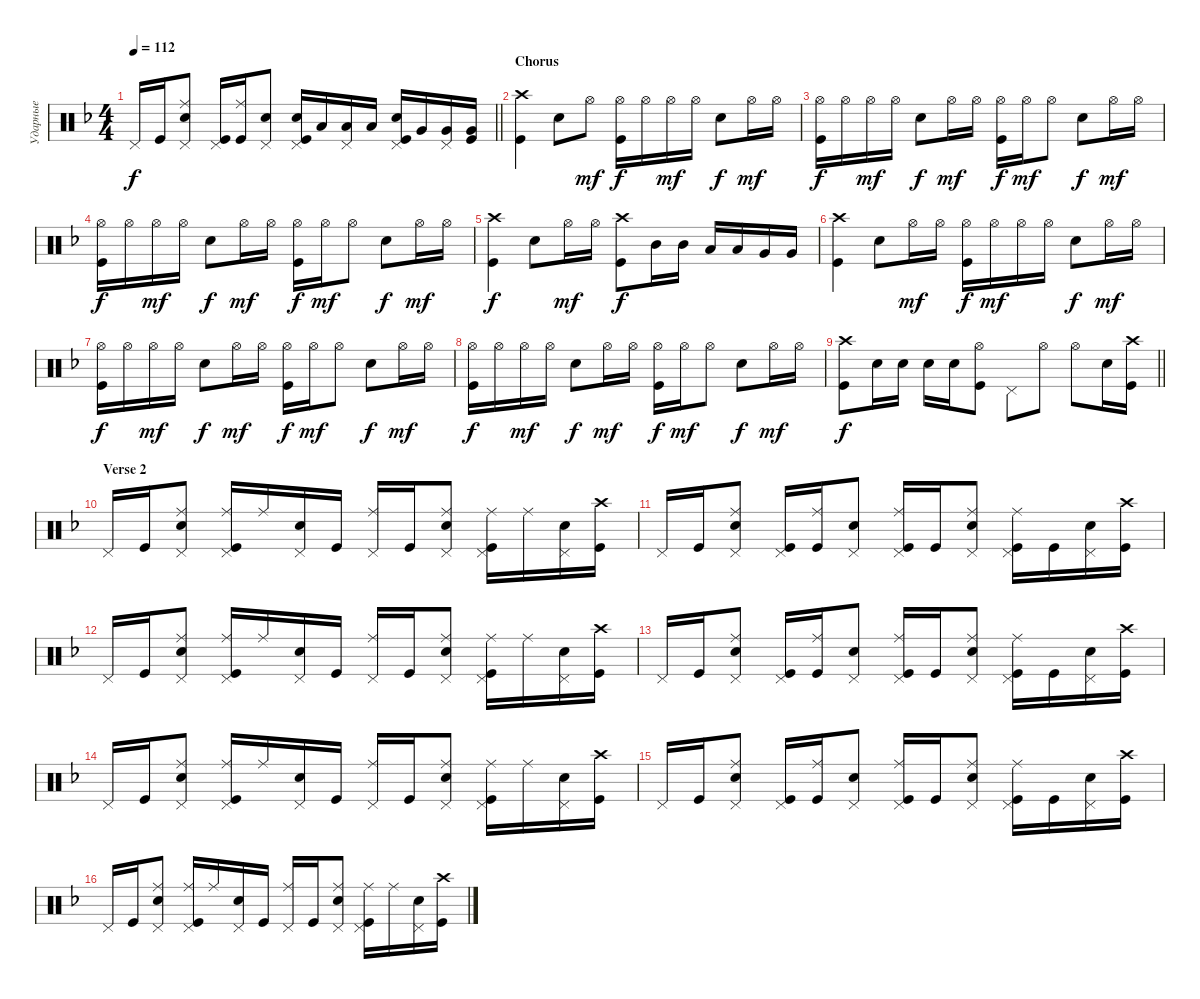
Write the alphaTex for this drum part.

\track ("Ударные" "Ударные") {instrument percussion}
\staff {score}
\articulation defaults
\ts (4 4)
\tempo 112
\clef neutral
\barLineRight lightlight
\ks dminor "Pedal Hi-Hat (hit)".16{dy f} "Kick (hit)".16
("Snare (hit) 2" "Pedal Hi-Hat (hit)" "Ride (middle)").8 ("Kick (hit)" "Pedal Hi-Hat (hit)").16 ("Ride (middle)" "Kick (hit)").16 ("Snare (hit) 2" "Pedal Hi-Hat (hit)").8 ("Pedal Hi-Hat (hit)" "Kick (hit)" "Snare (hit) 2").16{bd 480} "Low Tom (hit)".16 ("Low Tom (hit)" "Pedal Hi-Hat (hit)").16 "Low Tom (hit)".16 ("Snare (hit) 2" "Pedal Hi-Hat (hit)" "Kick (hit)").16 "Very Low Tom (hit)".16 ("Pedal Hi-Hat (hit)" "Very Low Tom (hit)").16 ("Kick (hit)" "Very Low Tom (hit)").16 |
\section ("" "Chorus")
("Kick (hit)" "Crash high (hit)").4 "Snare (hit) 2".8 "Hi-Hat (open)".8{dy mf} ("Hi-Hat (open)" "Kick (hit)").16{dy f} "Hi-Hat (open)".16 "Hi-Hat (open)".16{dy mf} "Hi-Hat (open)".16 "Snare (hit) 2".8{dy f} "Hi-Hat (open)".16{dy mf} "Hi-Hat (open)".16 |
("Kick (hit)" "Hi-Hat (open)").16{dy f} "Hi-Hat (open)".16 "Hi-Hat (open)".16{dy mf} "Hi-Hat (open)".16 "Snare (hit) 2".8{dy f} "Hi-Hat (open)".16{dy mf} "Hi-Hat (open)".16 ("Hi-Hat (open)" "Kick (hit)").16{dy f} "Hi-Hat (open)".16{dy mf} "Hi-Hat (open)".8 "Snare (hit) 2".8{dy f} "Hi-Hat (open)".16{dy mf} "Hi-Hat (open)".16 |
("Kick (hit)" "Hi-Hat (open)").16{dy f} "Hi-Hat (open)".16 "Hi-Hat (open)".16{dy mf} "Hi-Hat (open)".16 "Snare (hit) 2".8{dy f} "Hi-Hat (open)".16{dy mf} "Hi-Hat (open)".16 ("Hi-Hat (open)" "Kick (hit)").16{dy f} "Hi-Hat (open)".16{dy mf} "Hi-Hat (open)".8 "Snare (hit) 2".8{dy f} "Hi-Hat (open)".16{dy mf} "Hi-Hat (open)".16 |
("Kick (hit)" "Crash high (hit)").4{dy f} "Snare (hit) 2".8 "Hi-Hat (open)".16{dy mf} "Hi-Hat (open)".16 ("Kick (hit)" "Crash high (hit)").8{dy f} "Mid Tom (hit)".16 "Mid Tom (hit)".16 "Low Tom (hit)".16 "Low Tom (hit)".16 "Very Low Tom (hit)".16 "Very Low Tom (hit)".16 |
("Kick (hit)" "Crash high (hit)").4 "Snare (hit) 2".8 "Hi-Hat (open)".16{dy mf} "Hi-Hat (open)".16 ("Hi-Hat (open)" "Kick (hit)").16{dy f} "Hi-Hat (open)".16{dy mf} "Hi-Hat (open)".16 "Hi-Hat (open)".16 "Snare (hit) 2".8{dy f} "Hi-Hat (open)".16{dy mf} "Hi-Hat (open)".16 |
("Kick (hit)" "Hi-Hat (open)").16{dy f} "Hi-Hat (open)".16 "Hi-Hat (open)".16{dy mf} "Hi-Hat (open)".16 "Snare (hit) 2".8{dy f} "Hi-Hat (open)".16{dy mf} "Hi-Hat (open)".16 ("Hi-Hat (open)" "Kick (hit)").16{dy f} "Hi-Hat (open)".16{dy mf} "Hi-Hat (open)".8 "Snare (hit) 2".8{dy f} "Hi-Hat (open)".16{dy mf} "Hi-Hat (open)".16 |
("Kick (hit)" "Hi-Hat (open)").16{dy f} "Hi-Hat (open)".16 "Hi-Hat (open)".16{dy mf} "Hi-Hat (open)".16 "Snare (hit) 2".8{dy f} "Hi-Hat (open)".16{dy mf} "Hi-Hat (open)".16 ("Hi-Hat (open)" "Kick (hit)").16{dy f} "Hi-Hat (open)".16{dy mf} "Hi-Hat (open)".8 "Snare (hit) 2".8{dy f} "Hi-Hat (open)".16{dy mf} "Hi-Hat (open)".16 |
\barLineRight lightlight
("Kick (hit)" "Crash high (hit)").8{dy f} "Snare (hit) 2".16 "Snare (hit) 2".16 "Snare (hit) 2".16 "Snare (hit) 2".16 ("Kick (hit)" "Hi-Hat (open)").8 "Pedal Hi-Hat (hit)".8 "Hi-Hat (open)".8 "Hi-Hat (open)".8 "Snare (hit) 2".16 ("Kick (hit)" "Crash high (hit)").16 |
\section ("" "Verse 2")
"Pedal Hi-Hat (hit)".16 "Kick (hit)".16 ("Snare (hit) 2" "Pedal Hi-Hat (hit)" "Ride (middle)").8 ("Kick (hit)" "Pedal Hi-Hat (hit)" "Ride (middle)").16 "Ride (middle)".16 ("Snare (hit) 2" "Pedal Hi-Hat (hit)").16 "Kick (hit)".16 ("Pedal Hi-Hat (hit)" "Ride (middle)").16 "Kick (hit)".16 ("Snare (hit) 2" "Pedal Hi-Hat (hit)" "Ride (middle)").8 ("Kick (hit)" "Pedal Hi-Hat (hit)" "Ride (middle)").16 "Ride (middle)".16 ("Snare (hit) 2" "Pedal Hi-Hat (hit)").16 ("Kick (hit)" "Crash high (hit)").16 |
"Pedal Hi-Hat (hit)".16 "Kick (hit)".16 ("Snare (hit) 2" "Pedal Hi-Hat (hit)" "Ride (middle)").8 ("Kick (hit)" "Pedal Hi-Hat (hit)").16 ("Ride (middle)" "Kick (hit)").16 ("Snare (hit) 2" "Pedal Hi-Hat (hit)").8 ("Pedal Hi-Hat (hit)" "Ride (middle)" "Kick (hit)").16 "Kick (hit)".16 ("Snare (hit) 2" "Pedal Hi-Hat (hit)" "Ride (middle)").8 ("Kick (hit)" "Pedal Hi-Hat (hit)" "Ride (middle)").16 "Kick (hit)".16 ("Snare (hit) 2" "Pedal Hi-Hat (hit)").16 ("Kick (hit)" "Crash high (hit)").16 |
"Pedal Hi-Hat (hit)".16 "Kick (hit)".16 ("Snare (hit) 2" "Pedal Hi-Hat (hit)" "Ride (middle)").8 ("Kick (hit)" "Pedal Hi-Hat (hit)" "Ride (middle)").16 "Ride (middle)".16 ("Snare (hit) 2" "Pedal Hi-Hat (hit)").16 "Kick (hit)".16 ("Pedal Hi-Hat (hit)" "Ride (middle)").16 "Kick (hit)".16 ("Snare (hit) 2" "Pedal Hi-Hat (hit)" "Ride (middle)").8 ("Kick (hit)" "Pedal Hi-Hat (hit)" "Ride (middle)").16 "Ride (middle)".16 ("Snare (hit) 2" "Pedal Hi-Hat (hit)").16 ("Kick (hit)" "Crash high (hit)").16 |
"Pedal Hi-Hat (hit)".16 "Kick (hit)".16 ("Snare (hit) 2" "Pedal Hi-Hat (hit)" "Ride (middle)").8 ("Kick (hit)" "Pedal Hi-Hat (hit)").16 ("Ride (middle)" "Kick (hit)").16 ("Snare (hit) 2" "Pedal Hi-Hat (hit)").8 ("Pedal Hi-Hat (hit)" "Ride (middle)" "Kick (hit)").16 "Kick (hit)".16 ("Snare (hit) 2" "Pedal Hi-Hat (hit)" "Ride (middle)").8 ("Kick (hit)" "Pedal Hi-Hat (hit)" "Ride (middle)").16 "Kick (hit)".16 ("Snare (hit) 2" "Pedal Hi-Hat (hit)").16 ("Kick (hit)" "Crash high (hit)").16 |
"Pedal Hi-Hat (hit)".16 "Kick (hit)".16 ("Snare (hit) 2" "Pedal Hi-Hat (hit)" "Ride (middle)").8 ("Kick (hit)" "Pedal Hi-Hat (hit)" "Ride (middle)").16 "Ride (middle)".16 ("Snare (hit) 2" "Pedal Hi-Hat (hit)").16 "Kick (hit)".16 ("Pedal Hi-Hat (hit)" "Ride (middle)").16 "Kick (hit)".16 ("Snare (hit) 2" "Pedal Hi-Hat (hit)" "Ride (middle)").8 ("Kick (hit)" "Pedal Hi-Hat (hit)" "Ride (middle)").16 "Ride (middle)".16 ("Snare (hit) 2" "Pedal Hi-Hat (hit)").16 ("Kick (hit)" "Crash high (hit)").16 |
"Pedal Hi-Hat (hit)".16 "Kick (hit)".16 ("Snare (hit) 2" "Pedal Hi-Hat (hit)" "Ride (middle)").8 ("Kick (hit)" "Pedal Hi-Hat (hit)").16 ("Ride (middle)" "Kick (hit)").16 ("Snare (hit) 2" "Pedal Hi-Hat (hit)").8 ("Pedal Hi-Hat (hit)" "Ride (middle)" "Kick (hit)").16 "Kick (hit)".16 ("Snare (hit) 2" "Pedal Hi-Hat (hit)" "Ride (middle)").8 ("Kick (hit)" "Pedal Hi-Hat (hit)" "Ride (middle)").16 "Kick (hit)".16 ("Snare (hit) 2" "Pedal Hi-Hat (hit)").16 ("Kick (hit)" "Crash high (hit)").16 |
"Pedal Hi-Hat (hit)".16 "Kick (hit)".16 ("Snare (hit) 2" "Pedal Hi-Hat (hit)" "Ride (middle)").8 ("Kick (hit)" "Pedal Hi-Hat (hit)" "Ride (middle)").16 "Ride (middle)".16 ("Snare (hit) 2" "Pedal Hi-Hat (hit)").16 "Kick (hit)".16 ("Pedal Hi-Hat (hit)" "Ride (middle)").16 "Kick (hit)".16 ("Snare (hit) 2" "Pedal Hi-Hat (hit)" "Ride (middle)").8 ("Kick (hit)" "Pedal Hi-Hat (hit)" "Ride (middle)").16 "Ride (middle)".16 ("Snare (hit) 2" "Pedal Hi-Hat (hit)").16 ("Kick (hit)" "Crash high (hit)").16
